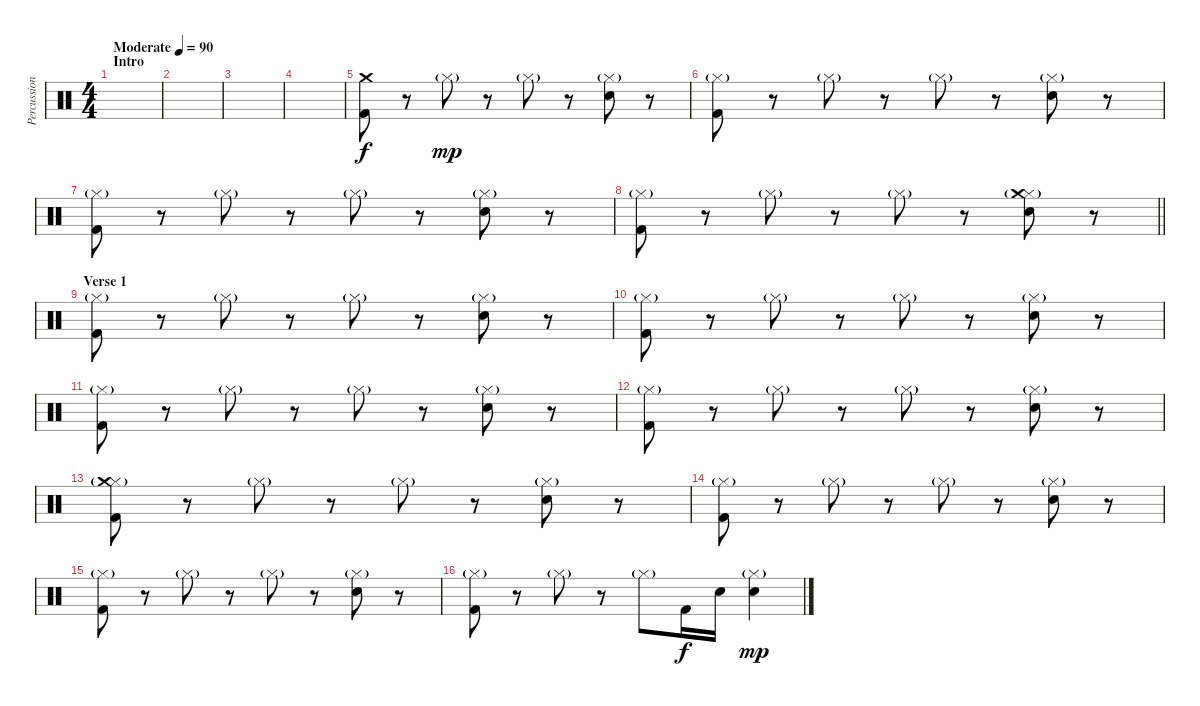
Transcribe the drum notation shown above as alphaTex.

\track ("Percussion" "Percussion") {instrument percussion}
\staff {score}
\articulation defaults
\ts (4 4)
\section ("" "Intro")
\tempo (90 "Moderate")
\clef neutral
\ks c
|
|
|
|
("Crash medium (hit)" "Kick (hit) 2").8 r.8 "Hi-Hat (closed)"{g}.8{dy mp} r.8 "Hi-Hat (closed)"{g}.8 r.8 ("Hi-Hat (closed)"{g} "Electric Snare (hit)").8 r.8 |
("Hi-Hat (closed)"{g} "Kick (hit) 2").8 r.8 "Hi-Hat (closed)"{g}.8 r.8 "Hi-Hat (closed)"{g}.8 r.8 ("Hi-Hat (closed)"{g} "Electric Snare (hit)").8 r.8 |
("Hi-Hat (closed)"{g} "Kick (hit) 2").8 r.8 "Hi-Hat (closed)"{g}.8 r.8 "Hi-Hat (closed)"{g}.8 r.8 ("Hi-Hat (closed)"{g} "Electric Snare (hit)").8 r.8 |
\barLineRight lightlight
("Hi-Hat (closed)"{g} "Kick (hit) 2").8 r.8 "Hi-Hat (closed)"{g}.8 r.8 "Hi-Hat (closed)"{g}.8 r.8 ("Hi-Hat (closed)"{g} "Crash medium (hit)" "Electric Snare (hit)").8 r.8 |
\section ("" "Verse 1")
("Hi-Hat (closed)"{g} "Kick (hit) 2").8 r.8 "Hi-Hat (closed)"{g}.8 r.8 "Hi-Hat (closed)"{g}.8 r.8 ("Hi-Hat (closed)"{g} "Electric Snare (hit)").8 r.8 |
("Hi-Hat (closed)"{g} "Kick (hit) 2").8 r.8 "Hi-Hat (closed)"{g}.8 r.8 "Hi-Hat (closed)"{g}.8 r.8 ("Hi-Hat (closed)"{g} "Electric Snare (hit)").8 r.8 |
("Hi-Hat (closed)"{g} "Kick (hit) 2").8 r.8 "Hi-Hat (closed)"{g}.8 r.8 "Hi-Hat (closed)"{g}.8 r.8 ("Hi-Hat (closed)"{g} "Electric Snare (hit)").8 r.8 |
("Hi-Hat (closed)"{g} "Kick (hit) 2").8 r.8 "Hi-Hat (closed)"{g}.8 r.8 "Hi-Hat (closed)"{g}.8 r.8 ("Hi-Hat (closed)"{g} "Electric Snare (hit)").8 r.8 |
("Hi-Hat (closed)"{g} "Crash medium (hit)" "Kick (hit) 2").8 r.8 "Hi-Hat (closed)"{g}.8 r.8 "Hi-Hat (closed)"{g}.8 r.8 ("Hi-Hat (closed)"{g} "Electric Snare (hit)").8 r.8 |
("Hi-Hat (closed)"{g} "Kick (hit) 2").8 r.8 "Hi-Hat (closed)"{g}.8 r.8 "Hi-Hat (closed)"{g}.8 r.8 ("Hi-Hat (closed)"{g} "Electric Snare (hit)").8 r.8 |
("Hi-Hat (closed)"{g} "Kick (hit) 2").8 r.8 "Hi-Hat (closed)"{g}.8 r.8 "Hi-Hat (closed)"{g}.8 r.8 ("Hi-Hat (closed)"{g} "Electric Snare (hit)").8 r.8 |
("Hi-Hat (closed)"{g} "Kick (hit) 2").8 r.8 "Hi-Hat (closed)"{g}.8 r.8 "Hi-Hat (closed)"{g}.8 "Kick (hit) 2".16{dy f} "Electric Snare (hit)".16 ("Hi-Hat (closed)"{g} "Electric Snare (hit)").4{dy mp}
